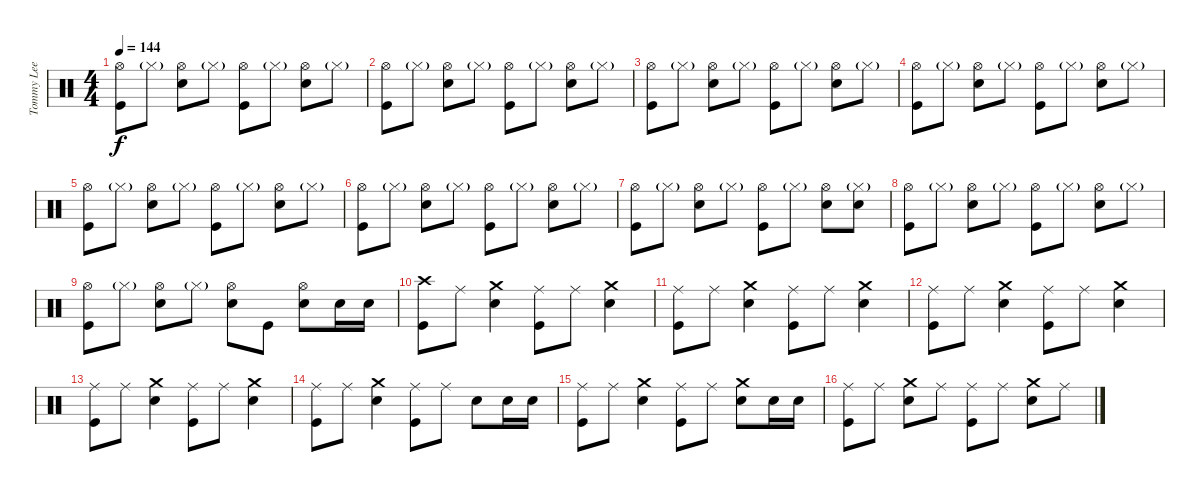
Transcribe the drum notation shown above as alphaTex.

\track ("Tommy Lee" "Tommy Lee") {instrument percussion}
\staff {score}
\articulation defaults
\ts (4 4)
\tempo 144
\clef neutral
\ks c
("Hi-Hat (open)" "Kick (hit)").8{dy f} "Hi-Hat (closed)"{g}.8 ("Hi-Hat (open)" "Snare (hit) 2").8 "Hi-Hat (closed)"{g}.8 ("Hi-Hat (open)" "Kick (hit)").8 "Hi-Hat (closed)"{g}.8 ("Hi-Hat (open)" "Snare (hit) 2").8 "Hi-Hat (closed)"{g}.8 |
("Hi-Hat (open)" "Kick (hit)").8 "Hi-Hat (closed)"{g}.8 ("Hi-Hat (open)" "Snare (hit) 2").8 "Hi-Hat (closed)"{g}.8 ("Hi-Hat (open)" "Kick (hit)").8 "Hi-Hat (closed)"{g}.8 ("Hi-Hat (open)" "Snare (hit) 2").8 "Hi-Hat (closed)"{g}.8 |
("Hi-Hat (open)" "Kick (hit)").8 "Hi-Hat (closed)"{g}.8 ("Hi-Hat (open)" "Snare (hit) 2").8 "Hi-Hat (closed)"{g}.8 ("Hi-Hat (open)" "Kick (hit)").8 "Hi-Hat (closed)"{g}.8 ("Hi-Hat (open)" "Snare (hit) 2").8 "Hi-Hat (closed)"{g}.8 |
("Hi-Hat (open)" "Kick (hit)").8 "Hi-Hat (closed)"{g}.8 ("Hi-Hat (open)" "Snare (hit) 2").8 "Hi-Hat (closed)"{g}.8 ("Hi-Hat (open)" "Kick (hit)").8 "Hi-Hat (closed)"{g}.8 ("Hi-Hat (open)" "Snare (hit) 2").8 "Hi-Hat (closed)"{g}.8 |
("Hi-Hat (open)" "Kick (hit)").8 "Hi-Hat (closed)"{g}.8 ("Hi-Hat (open)" "Snare (hit) 2").8 "Hi-Hat (closed)"{g}.8 ("Hi-Hat (open)" "Kick (hit)").8 "Hi-Hat (closed)"{g}.8 ("Hi-Hat (open)" "Snare (hit) 2").8 "Hi-Hat (closed)"{g}.8 |
("Hi-Hat (open)" "Kick (hit)").8 "Hi-Hat (closed)"{g}.8 ("Hi-Hat (open)" "Snare (hit) 2").8 "Hi-Hat (closed)"{g}.8 ("Hi-Hat (open)" "Kick (hit)").8 "Hi-Hat (closed)"{g}.8 ("Hi-Hat (open)" "Snare (hit) 2").8 "Hi-Hat (closed)"{g}.8 |
("Hi-Hat (open)" "Kick (hit)").8 "Hi-Hat (closed)"{g}.8 ("Hi-Hat (open)" "Snare (hit) 2").8 "Hi-Hat (closed)"{g}.8 ("Hi-Hat (open)" "Kick (hit)").8 "Hi-Hat (closed)"{g}.8 ("Hi-Hat (open)" "Snare (hit) 2").8 ("Hi-Hat (closed)"{g} "Snare (hit) 2").8 |
("Hi-Hat (open)" "Kick (hit)").8 "Hi-Hat (closed)"{g}.8 ("Hi-Hat (open)" "Snare (hit) 2").8 "Hi-Hat (closed)"{g}.8 ("Hi-Hat (open)" "Kick (hit)").8 "Hi-Hat (closed)"{g}.8 ("Hi-Hat (open)" "Snare (hit) 2").8 "Hi-Hat (closed)"{g}.8 |
("Hi-Hat (open)" "Kick (hit)").8 "Hi-Hat (closed)"{g}.8 ("Hi-Hat (open)" "Snare (hit) 2").8 "Hi-Hat (closed)"{g}.8 ("Hi-Hat (open)" "Snare (hit) 2").8 "Kick (hit)".8 ("Hi-Hat (open)" "Snare (hit) 2").8 "Snare (hit) 2".16 "Snare (hit) 2".16 |
("Crash high (hit)" "Kick (hit)").8 "Ride (middle)".8 ("Crash medium (hit)" "Snare (hit) 2").4 ("Ride (middle)" "Kick (hit)").8 "Ride (middle)".8 ("Crash medium (hit)" "Snare (hit) 2").4 |
("Ride (middle)" "Kick (hit)").8 "Ride (middle)".8 ("Crash medium (hit)" "Snare (hit) 2").4 ("Ride (middle)" "Kick (hit)").8 "Ride (middle)".8 ("Crash medium (hit)" "Snare (hit) 2").4 |
("Ride (middle)" "Kick (hit)").8 "Ride (middle)".8 ("Crash medium (hit)" "Snare (hit) 2").4 ("Ride (middle)" "Kick (hit)").8 "Ride (middle)".8 ("Crash medium (hit)" "Snare (hit) 2").4 |
("Ride (middle)" "Kick (hit)").8 "Ride (middle)".8 ("Crash medium (hit)" "Snare (hit) 2").4 ("Ride (middle)" "Kick (hit)").8 "Ride (middle)".8 ("Crash medium (hit)" "Snare (hit) 2").4 |
("Ride (middle)" "Kick (hit)").8 "Ride (middle)".8 ("Crash medium (hit)" "Snare (hit) 2").4 ("Ride (middle)" "Kick (hit)").8 "Ride (middle)".8 "Snare (hit) 2".8 "Snare (hit) 2".16 "Snare (hit) 2".16 |
("Ride (middle)" "Kick (hit)").8 "Ride (middle)".8 ("Crash medium (hit)" "Snare (hit) 2").4 ("Ride (middle)" "Kick (hit)").8 "Ride (middle)".8 ("Crash medium (hit)" "Snare (hit) 2").8 "Snare (hit) 2".16 "Snare (hit) 2".16 |
("Ride (middle)" "Kick (hit)").8 "Ride (middle)".8 ("Crash medium (hit)" "Snare (hit) 2").8 "Ride (middle)".8 ("Ride (middle)" "Kick (hit)").8 "Ride (middle)".8 ("Crash medium (hit)" "Snare (hit) 2").8 "Ride (middle)".8
